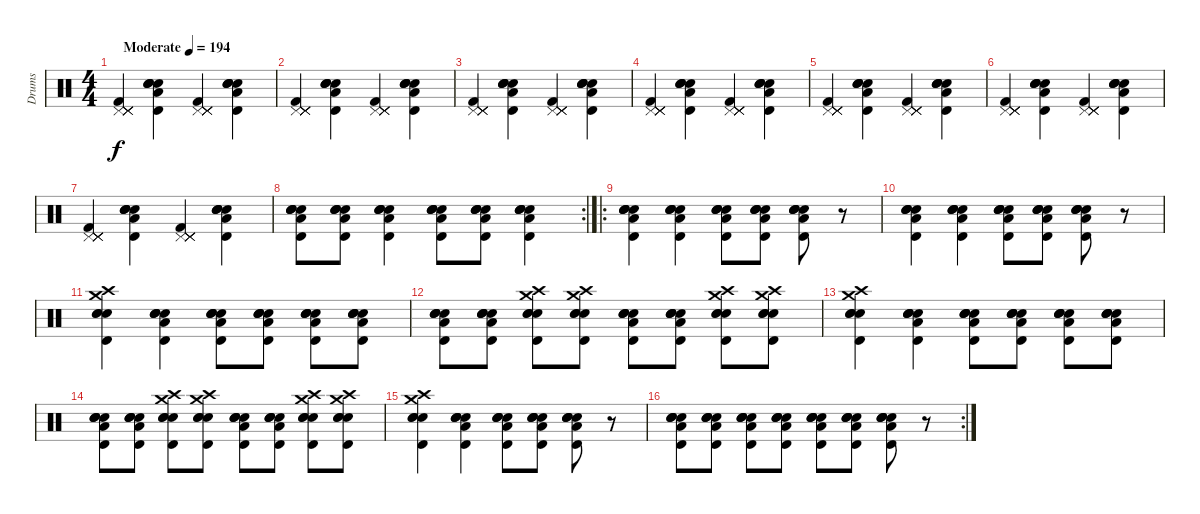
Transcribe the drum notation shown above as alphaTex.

\track ("Drums" "Drums") {instrument percussion}
\staff {score}
\articulation defaults
\ts (4 4)
\tempo (194 "Moderate")
\clef neutral
\ks c
("Pedal Hi-Hat (hit)" "Pedal Hi-Hat (hit)" "Pedal Hi-Hat (hit)" "Pedal Hi-Hat (hit)" "Kick (hit) 2" "Pedal Hi-Hat (hit)").4{dy f} ("Snare (hit) 2" "Snare (hit) 2" "Timbale high (hit)" "Snare (hit) 2" "Snare (hit) 2" "Low Floor Tom (hit)").4 ("Pedal Hi-Hat (hit)" "Pedal Hi-Hat (hit)" "Pedal Hi-Hat (hit)" "Pedal Hi-Hat (hit)" "Kick (hit) 2" "Pedal Hi-Hat (hit)").4 ("Snare (hit) 2" "Snare (hit) 2" "Timbale high (hit)" "Snare (hit) 2" "Snare (hit) 2" "Low Floor Tom (hit)").4 |
("Pedal Hi-Hat (hit)" "Pedal Hi-Hat (hit)" "Pedal Hi-Hat (hit)" "Pedal Hi-Hat (hit)" "Kick (hit) 2" "Pedal Hi-Hat (hit)").4 ("Snare (hit) 2" "Snare (hit) 2" "Timbale high (hit)" "Snare (hit) 2" "Snare (hit) 2" "Low Floor Tom (hit)").4 ("Pedal Hi-Hat (hit)" "Pedal Hi-Hat (hit)" "Pedal Hi-Hat (hit)" "Pedal Hi-Hat (hit)" "Kick (hit) 2" "Pedal Hi-Hat (hit)").4 ("Snare (hit) 2" "Snare (hit) 2" "Timbale high (hit)" "Snare (hit) 2" "Snare (hit) 2" "Low Floor Tom (hit)").4 |
("Pedal Hi-Hat (hit)" "Pedal Hi-Hat (hit)" "Pedal Hi-Hat (hit)" "Pedal Hi-Hat (hit)" "Kick (hit) 2" "Pedal Hi-Hat (hit)").4 ("Snare (hit) 2" "Snare (hit) 2" "Timbale high (hit)" "Snare (hit) 2" "Snare (hit) 2" "Low Floor Tom (hit)").4 ("Pedal Hi-Hat (hit)" "Pedal Hi-Hat (hit)" "Pedal Hi-Hat (hit)" "Pedal Hi-Hat (hit)" "Kick (hit) 2" "Pedal Hi-Hat (hit)").4 ("Snare (hit) 2" "Snare (hit) 2" "Timbale high (hit)" "Snare (hit) 2" "Snare (hit) 2" "Low Floor Tom (hit)").4 |
("Pedal Hi-Hat (hit)" "Pedal Hi-Hat (hit)" "Pedal Hi-Hat (hit)" "Pedal Hi-Hat (hit)" "Kick (hit) 2" "Pedal Hi-Hat (hit)").4 ("Snare (hit) 2" "Snare (hit) 2" "Timbale high (hit)" "Snare (hit) 2" "Snare (hit) 2" "Low Floor Tom (hit)").4 ("Pedal Hi-Hat (hit)" "Pedal Hi-Hat (hit)" "Pedal Hi-Hat (hit)" "Pedal Hi-Hat (hit)" "Kick (hit) 2" "Pedal Hi-Hat (hit)").4 ("Snare (hit) 2" "Snare (hit) 2" "Timbale high (hit)" "Snare (hit) 2" "Snare (hit) 2" "Low Floor Tom (hit)").4 |
("Pedal Hi-Hat (hit)" "Pedal Hi-Hat (hit)" "Pedal Hi-Hat (hit)" "Pedal Hi-Hat (hit)" "Kick (hit) 2" "Pedal Hi-Hat (hit)").4 ("Snare (hit) 2" "Snare (hit) 2" "Timbale high (hit)" "Snare (hit) 2" "Snare (hit) 2" "Low Floor Tom (hit)").4 ("Pedal Hi-Hat (hit)" "Pedal Hi-Hat (hit)" "Pedal Hi-Hat (hit)" "Pedal Hi-Hat (hit)" "Kick (hit) 2" "Pedal Hi-Hat (hit)").4 ("Snare (hit) 2" "Snare (hit) 2" "Timbale high (hit)" "Snare (hit) 2" "Snare (hit) 2" "Low Floor Tom (hit)").4 |
("Pedal Hi-Hat (hit)" "Pedal Hi-Hat (hit)" "Pedal Hi-Hat (hit)" "Pedal Hi-Hat (hit)" "Kick (hit) 2" "Pedal Hi-Hat (hit)").4 ("Snare (hit) 2" "Snare (hit) 2" "Timbale high (hit)" "Snare (hit) 2" "Snare (hit) 2" "Low Floor Tom (hit)").4 ("Pedal Hi-Hat (hit)" "Pedal Hi-Hat (hit)" "Pedal Hi-Hat (hit)" "Pedal Hi-Hat (hit)" "Kick (hit) 2" "Pedal Hi-Hat (hit)").4 ("Snare (hit) 2" "Snare (hit) 2" "Timbale high (hit)" "Snare (hit) 2" "Snare (hit) 2" "Low Floor Tom (hit)").4 |
("Pedal Hi-Hat (hit)" "Pedal Hi-Hat (hit)" "Pedal Hi-Hat (hit)" "Pedal Hi-Hat (hit)" "Kick (hit) 2" "Pedal Hi-Hat (hit)").4 ("Snare (hit) 2" "Snare (hit) 2" "Timbale high (hit)" "Snare (hit) 2" "Snare (hit) 2" "Low Floor Tom (hit)").4 ("Pedal Hi-Hat (hit)" "Pedal Hi-Hat (hit)" "Pedal Hi-Hat (hit)" "Pedal Hi-Hat (hit)" "Kick (hit) 2" "Pedal Hi-Hat (hit)").4 ("Snare (hit) 2" "Snare (hit) 2" "Timbale high (hit)" "Snare (hit) 2" "Snare (hit) 2" "Low Floor Tom (hit)").4 |
\rc 2
("Snare (hit) 2" "Snare (hit) 2" "Timbale high (hit)" "Snare (hit) 2" "Snare (hit) 2" "Low Floor Tom (hit)").8 ("Snare (hit) 2" "Snare (hit) 2" "Timbale high (hit)" "Snare (hit) 2" "Snare (hit) 2" "Low Floor Tom (hit)").8 ("Snare (hit) 2" "Snare (hit) 2" "Timbale high (hit)" "Snare (hit) 2" "Snare (hit) 2" "Low Floor Tom (hit)").4 ("Snare (hit) 2" "Snare (hit) 2" "Timbale high (hit)" "Snare (hit) 2" "Snare (hit) 2" "Low Floor Tom (hit)").8 ("Snare (hit) 2" "Snare (hit) 2" "Timbale high (hit)" "Snare (hit) 2" "Snare (hit) 2" "Low Floor Tom (hit)").8 ("Snare (hit) 2" "Snare (hit) 2" "Timbale high (hit)" "Snare (hit) 2" "Snare (hit) 2" "Low Floor Tom (hit)").4 |
\ro
("Snare (hit) 2" "Snare (hit) 2" "Timbale high (hit)" "Snare (hit) 2" "Snare (hit) 2" "Low Floor Tom (hit)").4 ("Snare (hit) 2" "Snare (hit) 2" "Timbale high (hit)" "Snare (hit) 2" "Snare (hit) 2" "Low Floor Tom (hit)").4 ("Snare (hit) 2" "Snare (hit) 2" "Timbale high (hit)" "Snare (hit) 2" "Snare (hit) 2" "Low Floor Tom (hit)").8 ("Snare (hit) 2" "Snare (hit) 2" "Timbale high (hit)" "Snare (hit) 2" "Snare (hit) 2" "Low Floor Tom (hit)").8 ("Snare (hit) 2" "Snare (hit) 2" "Timbale high (hit)" "Snare (hit) 2" "Snare (hit) 2" "Low Floor Tom (hit)").8 r.8 |
("Snare (hit) 2" "Snare (hit) 2" "Timbale high (hit)" "Snare (hit) 2" "Snare (hit) 2" "Low Floor Tom (hit)").4 ("Snare (hit) 2" "Snare (hit) 2" "Timbale high (hit)" "Snare (hit) 2" "Snare (hit) 2" "Low Floor Tom (hit)").4 ("Snare (hit) 2" "Snare (hit) 2" "Timbale high (hit)" "Snare (hit) 2" "Snare (hit) 2" "Low Floor Tom (hit)").8 ("Snare (hit) 2" "Snare (hit) 2" "Timbale high (hit)" "Snare (hit) 2" "Snare (hit) 2" "Low Floor Tom (hit)").8 ("Snare (hit) 2" "Snare (hit) 2" "Timbale high (hit)" "Snare (hit) 2" "Snare (hit) 2" "Low Floor Tom (hit)").8 r.8 |
("Snare (hit) 2" "Snare (hit) 2" "Timbale high (hit)" "Snare (hit) 2" "Crash medium (hit)" "Crash high (hit)").4 ("Snare (hit) 2" "Snare (hit) 2" "Timbale high (hit)" "Snare (hit) 2" "Snare (hit) 2" "Low Floor Tom (hit)").4 ("Snare (hit) 2" "Snare (hit) 2" "Timbale high (hit)" "Snare (hit) 2" "Snare (hit) 2" "Low Floor Tom (hit)").8 ("Snare (hit) 2" "Snare (hit) 2" "Timbale high (hit)" "Snare (hit) 2" "Snare (hit) 2" "Low Floor Tom (hit)").8 ("Snare (hit) 2" "Snare (hit) 2" "Timbale high (hit)" "Snare (hit) 2" "Snare (hit) 2" "Low Floor Tom (hit)").8 ("Snare (hit) 2" "Snare (hit) 2" "Timbale high (hit)" "Snare (hit) 2" "Snare (hit) 2" "Low Floor Tom (hit)").8 |
("Snare (hit) 2" "Snare (hit) 2" "Timbale high (hit)" "Snare (hit) 2" "Snare (hit) 2" "Low Floor Tom (hit)").8 ("Snare (hit) 2" "Snare (hit) 2" "Timbale high (hit)" "Snare (hit) 2" "Snare (hit) 2" "Low Floor Tom (hit)").8 ("Snare (hit) 2" "Snare (hit) 2" "Timbale high (hit)" "Snare (hit) 2" "Crash medium (hit)" "Crash high (hit)").8 ("Snare (hit) 2" "Snare (hit) 2" "Timbale high (hit)" "Snare (hit) 2" "Crash medium (hit)" "Crash high (hit)").8 ("Snare (hit) 2" "Snare (hit) 2" "Timbale high (hit)" "Snare (hit) 2" "Snare (hit) 2" "Low Floor Tom (hit)").8 ("Snare (hit) 2" "Snare (hit) 2" "Timbale high (hit)" "Snare (hit) 2" "Snare (hit) 2" "Low Floor Tom (hit)").8 ("Snare (hit) 2" "Snare (hit) 2" "Timbale high (hit)" "Snare (hit) 2" "Crash medium (hit)" "Crash high (hit)").8 ("Snare (hit) 2" "Snare (hit) 2" "Timbale high (hit)" "Snare (hit) 2" "Crash medium (hit)" "Crash high (hit)").8 |
("Snare (hit) 2" "Snare (hit) 2" "Timbale high (hit)" "Snare (hit) 2" "Crash medium (hit)" "Crash high (hit)").4 ("Snare (hit) 2" "Snare (hit) 2" "Timbale high (hit)" "Snare (hit) 2" "Snare (hit) 2" "Low Floor Tom (hit)").4 ("Snare (hit) 2" "Snare (hit) 2" "Timbale high (hit)" "Snare (hit) 2" "Snare (hit) 2" "Low Floor Tom (hit)").8 ("Snare (hit) 2" "Snare (hit) 2" "Timbale high (hit)" "Snare (hit) 2" "Snare (hit) 2" "Low Floor Tom (hit)").8 ("Snare (hit) 2" "Snare (hit) 2" "Timbale high (hit)" "Snare (hit) 2" "Snare (hit) 2" "Low Floor Tom (hit)").8 ("Snare (hit) 2" "Snare (hit) 2" "Timbale high (hit)" "Snare (hit) 2" "Snare (hit) 2" "Low Floor Tom (hit)").8 |
("Snare (hit) 2" "Snare (hit) 2" "Timbale high (hit)" "Snare (hit) 2" "Snare (hit) 2" "Low Floor Tom (hit)").8 ("Snare (hit) 2" "Snare (hit) 2" "Timbale high (hit)" "Snare (hit) 2" "Snare (hit) 2" "Low Floor Tom (hit)").8 ("Snare (hit) 2" "Snare (hit) 2" "Timbale high (hit)" "Snare (hit) 2" "Crash medium (hit)" "Crash high (hit)").8 ("Snare (hit) 2" "Snare (hit) 2" "Timbale high (hit)" "Snare (hit) 2" "Crash medium (hit)" "Crash high (hit)").8 ("Snare (hit) 2" "Snare (hit) 2" "Timbale high (hit)" "Snare (hit) 2" "Snare (hit) 2" "Low Floor Tom (hit)").8 ("Snare (hit) 2" "Snare (hit) 2" "Timbale high (hit)" "Snare (hit) 2" "Snare (hit) 2" "Low Floor Tom (hit)").8 ("Snare (hit) 2" "Snare (hit) 2" "Timbale high (hit)" "Snare (hit) 2" "Crash medium (hit)" "Crash high (hit)").8 ("Snare (hit) 2" "Snare (hit) 2" "Timbale high (hit)" "Snare (hit) 2" "Crash medium (hit)" "Crash high (hit)").8 |
("Snare (hit) 2" "Snare (hit) 2" "Timbale high (hit)" "Snare (hit) 2" "Crash medium (hit)" "Crash high (hit)").4 ("Snare (hit) 2" "Snare (hit) 2" "Timbale high (hit)" "Snare (hit) 2" "Snare (hit) 2" "Low Floor Tom (hit)").4 ("Snare (hit) 2" "Snare (hit) 2" "Timbale high (hit)" "Snare (hit) 2" "Snare (hit) 2" "Low Floor Tom (hit)").8 ("Snare (hit) 2" "Snare (hit) 2" "Timbale high (hit)" "Snare (hit) 2" "Snare (hit) 2" "Low Floor Tom (hit)").8 ("Snare (hit) 2" "Snare (hit) 2" "Timbale high (hit)" "Snare (hit) 2" "Snare (hit) 2" "Low Floor Tom (hit)").8 r.8 |
\rc 2
("Snare (hit) 2" "Snare (hit) 2" "Timbale high (hit)" "Snare (hit) 2" "Snare (hit) 2" "Low Floor Tom (hit)").8 ("Snare (hit) 2" "Snare (hit) 2" "Timbale high (hit)" "Snare (hit) 2" "Snare (hit) 2" "Low Floor Tom (hit)").8 ("Snare (hit) 2" "Snare (hit) 2" "Timbale high (hit)" "Snare (hit) 2" "Snare (hit) 2" "Low Floor Tom (hit)").8 ("Snare (hit) 2" "Snare (hit) 2" "Timbale high (hit)" "Snare (hit) 2" "Snare (hit) 2" "Low Floor Tom (hit)").8 ("Snare (hit) 2" "Snare (hit) 2" "Timbale high (hit)" "Snare (hit) 2" "Snare (hit) 2" "Low Floor Tom (hit)").8 ("Snare (hit) 2" "Snare (hit) 2" "Timbale high (hit)" "Snare (hit) 2" "Snare (hit) 2" "Low Floor Tom (hit)").8 ("Snare (hit) 2" "Snare (hit) 2" "Timbale high (hit)" "Snare (hit) 2" "Snare (hit) 2" "Low Floor Tom (hit)").8 r.8
